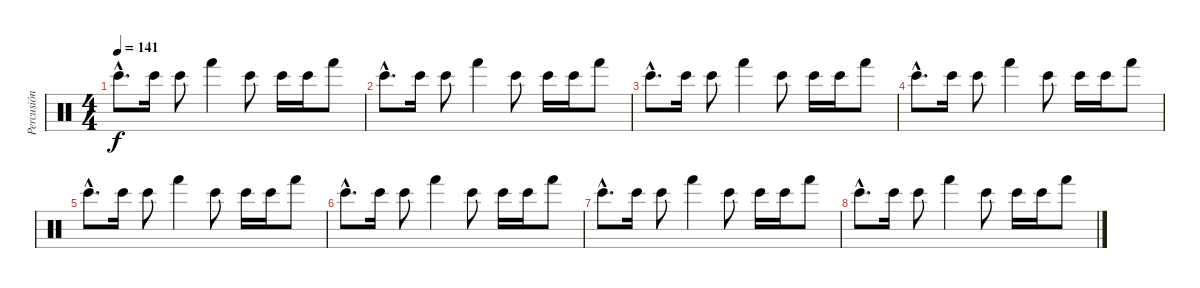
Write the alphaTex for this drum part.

\track ("Percusión 2" "Percusión ") {instrument percussion}
\staff {score}
\articulation defaults
\ts (4 4)
\tempo 141
\clef neutral
\ks c "Bongo High (hit)"{hac}.8{d dy f} "Bongo High (hit)".16 "Bongo High (hit)".8 "Hand (hit)".4 "Bongo High (hit)".8 "Bongo High (hit)".16 "Bongo High (hit)".16 "Hand (hit)".8
|
"Bongo High (hit)"{hac}.8{d} "Bongo High (hit)".16 "Bongo High (hit)".8 "Hand (hit)".4 "Bongo High (hit)".8 "Bongo High (hit)".16 "Bongo High (hit)".16 "Hand (hit)".8 |
"Bongo High (hit)"{hac}.8{d} "Bongo High (hit)".16 "Bongo High (hit)".8 "Hand (hit)".4 "Bongo High (hit)".8 "Bongo High (hit)".16 "Bongo High (hit)".16 "Hand (hit)".8 |
"Bongo High (hit)"{hac}.8{d} "Bongo High (hit)".16 "Bongo High (hit)".8 "Hand (hit)".4 "Bongo High (hit)".8 "Bongo High (hit)".16 "Bongo High (hit)".16 "Hand (hit)".8 |
"Bongo High (hit)"{hac}.8{d} "Bongo High (hit)".16 "Bongo High (hit)".8 "Hand (hit)".4 "Bongo High (hit)".8 "Bongo High (hit)".16 "Bongo High (hit)".16 "Hand (hit)".8 |
"Bongo High (hit)"{hac}.8{d} "Bongo High (hit)".16 "Bongo High (hit)".8 "Hand (hit)".4 "Bongo High (hit)".8 "Bongo High (hit)".16 "Bongo High (hit)".16 "Hand (hit)".8 |
"Bongo High (hit)"{hac}.8{d} "Bongo High (hit)".16 "Bongo High (hit)".8 "Hand (hit)".4 "Bongo High (hit)".8 "Bongo High (hit)".16 "Bongo High (hit)".16 "Hand (hit)".8 |
"Bongo High (hit)"{hac}.8{d} "Bongo High (hit)".16 "Bongo High (hit)".8 "Hand (hit)".4 "Bongo High (hit)".8 "Bongo High (hit)".16 "Bongo High (hit)".16 "Hand (hit)".8
